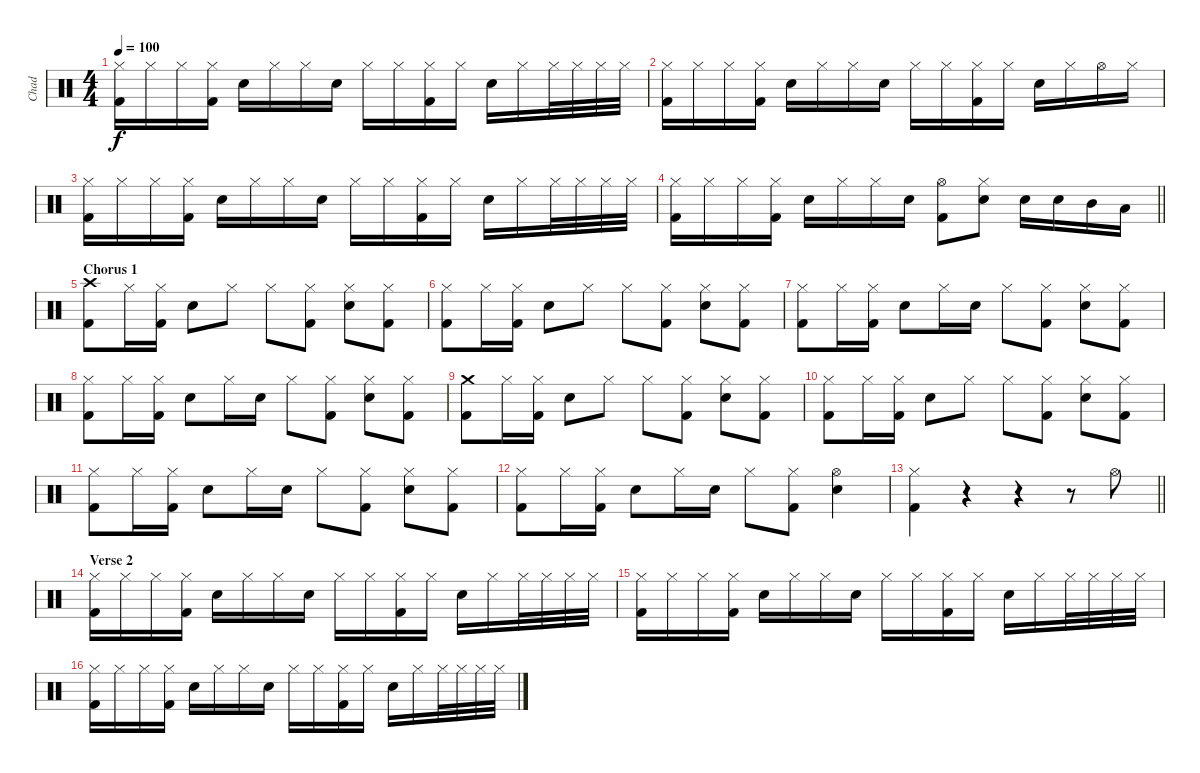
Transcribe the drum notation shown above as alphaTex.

\track ("Chad" "Chad") {instrument percussion}
\staff {score}
\articulation defaults
\ts (4 4)
\tempo 100
\clef neutral
\ks c
("Hi-Hat (closed)" "Kick (hit) 2").16{dy f} "Hi-Hat (closed)".16 "Hi-Hat (closed)".16 ("Hi-Hat (closed)" "Kick (hit) 2").16 "Electric Snare (hit)".16 "Hi-Hat (closed)".16 "Hi-Hat (closed)".16 "Electric Snare (hit)".16 "Hi-Hat (closed)".16 "Hi-Hat (closed)".16 ("Hi-Hat (closed)" "Kick (hit) 2").16 "Hi-Hat (closed)".16 "Electric Snare (hit)".16 "Hi-Hat (closed)".16 "Hi-Hat (closed)".32 "Hi-Hat (closed)".32 "Hi-Hat (closed)".32 "Hi-Hat (closed)".32 |
("Hi-Hat (closed)" "Kick (hit) 2").16 "Hi-Hat (closed)".16 "Hi-Hat (closed)".16 ("Hi-Hat (closed)" "Kick (hit) 2").16 "Electric Snare (hit)".16 "Hi-Hat (closed)".16 "Hi-Hat (closed)".16 "Electric Snare (hit)".16 "Hi-Hat (closed)".16 "Hi-Hat (closed)".16 ("Hi-Hat (closed)" "Kick (hit) 2").16 "Hi-Hat (closed)".16 "Electric Snare (hit)".16 "Hi-Hat (closed)".16 "Hi-Hat (open)".16 "Hi-Hat (closed)".16 |
("Hi-Hat (closed)" "Kick (hit) 2").16 "Hi-Hat (closed)".16 "Hi-Hat (closed)".16 ("Hi-Hat (closed)" "Kick (hit) 2").16 "Electric Snare (hit)".16 "Hi-Hat (closed)".16 "Hi-Hat (closed)".16 "Electric Snare (hit)".16 "Hi-Hat (closed)".16 "Hi-Hat (closed)".16 ("Hi-Hat (closed)" "Kick (hit) 2").16 "Hi-Hat (closed)".16 "Electric Snare (hit)".16 "Hi-Hat (closed)".16 "Hi-Hat (closed)".32 "Hi-Hat (closed)".32 "Hi-Hat (closed)".32 "Hi-Hat (closed)".32 |
\barLineRight lightlight
("Hi-Hat (closed)" "Kick (hit) 2").16 "Hi-Hat (closed)".16 "Hi-Hat (closed)".16 ("Hi-Hat (closed)" "Kick (hit) 2").16 "Electric Snare (hit)".16 "Hi-Hat (closed)".16 "Hi-Hat (closed)".16 "Electric Snare (hit)".16 ("Hi-Hat (open)" "Kick (hit) 2").8 ("Hi-Hat (closed)" "Electric Snare (hit)").8 "Electric Snare (hit)".16 "Electric Snare (hit)".16 "Mid Tom (hit)".16 "Low Tom (hit)".16 |
\section ("" "Chorus 1")
("Crash high (hit)" "Kick (hit) 2").8 "Hi-Hat (closed)".16 ("Hi-Hat (closed)" "Kick (hit) 2").16 "Electric Snare (hit)".8 "Hi-Hat (closed)".8 "Hi-Hat (closed)".8 ("Hi-Hat (closed)" "Kick (hit) 2").8 ("Hi-Hat (closed)" "Electric Snare (hit)").8 ("Hi-Hat (closed)" "Kick (hit) 2").8 |
("Hi-Hat (closed)" "Kick (hit) 2").8 "Hi-Hat (closed)".16 ("Hi-Hat (closed)" "Kick (hit) 2").16 "Electric Snare (hit)".8 "Hi-Hat (closed)".8 "Hi-Hat (closed)".8 ("Hi-Hat (closed)" "Kick (hit) 2").8 ("Hi-Hat (closed)" "Electric Snare (hit)").8 ("Hi-Hat (closed)" "Kick (hit) 2").8 |
("Hi-Hat (closed)" "Kick (hit) 2").8 "Hi-Hat (closed)".16 ("Hi-Hat (closed)" "Kick (hit) 2").16 "Electric Snare (hit)".8 "Hi-Hat (closed)".16 "Electric Snare (hit)".16 "Hi-Hat (closed)".8 ("Hi-Hat (closed)" "Kick (hit) 2").8 ("Hi-Hat (closed)" "Electric Snare (hit)").8 ("Hi-Hat (closed)" "Kick (hit) 2").8 |
("Hi-Hat (closed)" "Kick (hit) 2").8 "Hi-Hat (closed)".16 ("Hi-Hat (closed)" "Kick (hit) 2").16 "Electric Snare (hit)".8 "Hi-Hat (closed)".16 "Electric Snare (hit)".16 "Hi-Hat (closed)".8 ("Hi-Hat (closed)" "Kick (hit) 2").8 ("Hi-Hat (closed)" "Electric Snare (hit)").8 ("Hi-Hat (closed)" "Kick (hit) 2").8 |
("Crash medium (hit)" "Kick (hit) 2").8 "Hi-Hat (closed)".16 ("Hi-Hat (closed)" "Kick (hit) 2").16 "Electric Snare (hit)".8 "Hi-Hat (closed)".8 "Hi-Hat (closed)".8 ("Hi-Hat (closed)" "Kick (hit) 2").8 ("Hi-Hat (closed)" "Electric Snare (hit)").8 ("Hi-Hat (closed)" "Kick (hit) 2").8 |
("Hi-Hat (closed)" "Kick (hit) 2").8 "Hi-Hat (closed)".16 ("Hi-Hat (closed)" "Kick (hit) 2").16 "Electric Snare (hit)".8 "Hi-Hat (closed)".8 "Hi-Hat (closed)".8 ("Hi-Hat (closed)" "Kick (hit) 2").8 ("Hi-Hat (closed)" "Electric Snare (hit)").8 ("Hi-Hat (closed)" "Kick (hit) 2").8 |
("Hi-Hat (closed)" "Kick (hit) 2").8 "Hi-Hat (closed)".16 ("Hi-Hat (closed)" "Kick (hit) 2").16 "Electric Snare (hit)".8 "Hi-Hat (closed)".16 "Electric Snare (hit)".16 "Hi-Hat (closed)".8 ("Hi-Hat (closed)" "Kick (hit) 2").8 ("Hi-Hat (closed)" "Electric Snare (hit)").8 ("Hi-Hat (closed)" "Kick (hit) 2").8 |
("Hi-Hat (closed)" "Kick (hit) 2").8 "Hi-Hat (closed)".16 ("Hi-Hat (closed)" "Kick (hit) 2").16 "Electric Snare (hit)".8 "Hi-Hat (closed)".16 "Electric Snare (hit)".16 "Hi-Hat (closed)".8 ("Hi-Hat (closed)" "Kick (hit) 2").8 ("Hi-Hat (open)" "Electric Snare (hit)").4 |
\barLineRight lightlight
("Hi-Hat (closed)" "Kick (hit) 2").4 r.4 r.4 r.8 "Hi-Hat (open)".8 |
\section ("" "Verse 2")
("Hi-Hat (closed)" "Kick (hit) 2").16 "Hi-Hat (closed)".16 "Hi-Hat (closed)".16 ("Hi-Hat (closed)" "Kick (hit) 2").16 "Electric Snare (hit)".16 "Hi-Hat (closed)".16 "Hi-Hat (closed)".16 "Electric Snare (hit)".16 "Hi-Hat (closed)".16 "Hi-Hat (closed)".16 ("Hi-Hat (closed)" "Kick (hit) 2").16 "Hi-Hat (closed)".16 "Electric Snare (hit)".16 "Hi-Hat (closed)".16 "Hi-Hat (closed)".32 "Hi-Hat (closed)".32 "Hi-Hat (closed)".32 "Hi-Hat (closed)".32 |
("Hi-Hat (closed)" "Kick (hit) 2").16 "Hi-Hat (closed)".16 "Hi-Hat (closed)".16 ("Hi-Hat (closed)" "Kick (hit) 2").16 "Electric Snare (hit)".16 "Hi-Hat (closed)".16 "Hi-Hat (closed)".16 "Electric Snare (hit)".16 "Hi-Hat (closed)".16 "Hi-Hat (closed)".16 ("Hi-Hat (closed)" "Kick (hit) 2").16 "Hi-Hat (closed)".16 "Electric Snare (hit)".16 "Hi-Hat (closed)".16 "Hi-Hat (closed)".32 "Hi-Hat (closed)".32 "Hi-Hat (closed)".32 "Hi-Hat (closed)".32 |
("Hi-Hat (closed)" "Kick (hit) 2").16 "Hi-Hat (closed)".16 "Hi-Hat (closed)".16 ("Hi-Hat (closed)" "Kick (hit) 2").16 "Electric Snare (hit)".16 "Hi-Hat (closed)".16 "Hi-Hat (closed)".16 "Electric Snare (hit)".16 "Hi-Hat (closed)".16 "Hi-Hat (closed)".16 ("Hi-Hat (closed)" "Kick (hit) 2").16 "Hi-Hat (closed)".16 "Electric Snare (hit)".16 "Hi-Hat (closed)".16 "Hi-Hat (closed)".32 "Hi-Hat (closed)".32 "Hi-Hat (closed)".32 "Hi-Hat (closed)".32
